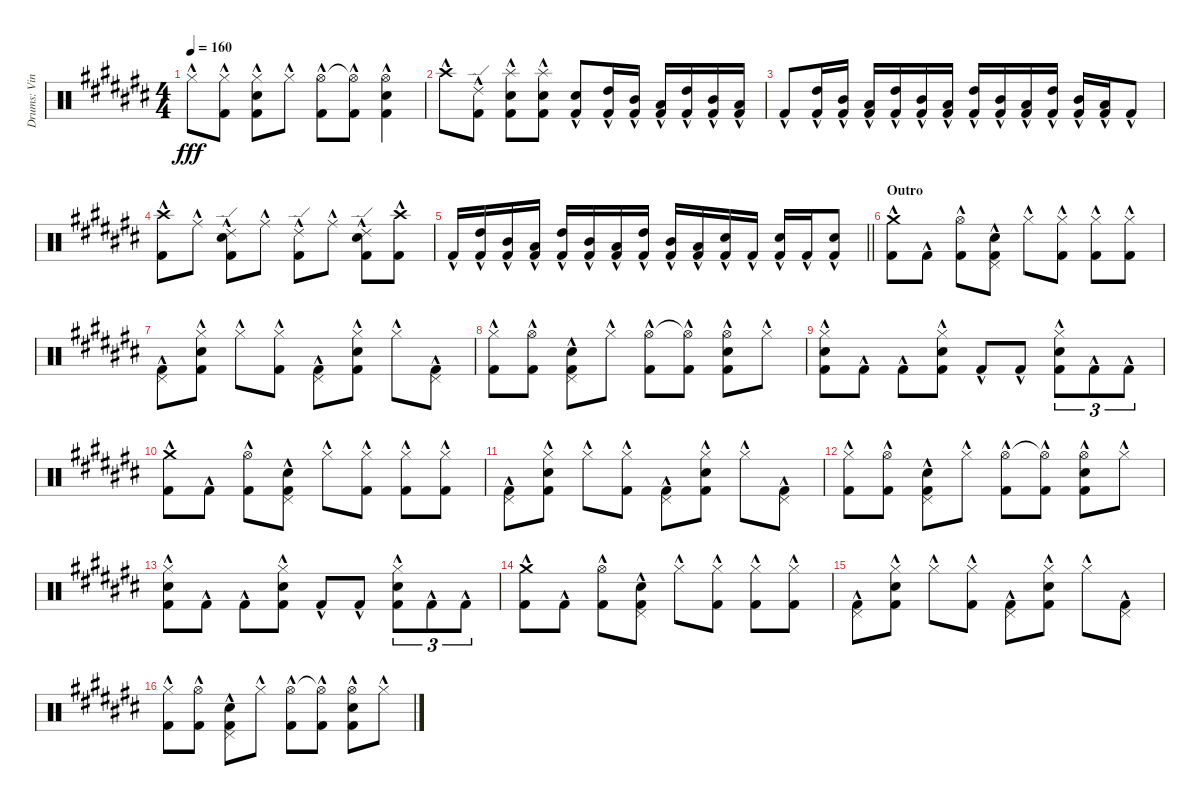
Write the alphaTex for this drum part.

\track ("Drums: Vinny" "Drums: Vin") {instrument percussion}
\staff {score}
\articulation defaults
\ts (4 4)
\tempo 160
\clef neutral
\ks c# "Hi-Hat (closed)"{hac}.8{dy fff}
("Hi-Hat (closed)"{hac} "Kick (hit) 2"{hac}).8 ("Hi-Hat (closed)"{hac} "Snare (hit) 2"{hac} "Kick (hit) 2"{hac}).8 "Hi-Hat (closed)"{hac}.8 ("Hi-Hat (open)"{hac} "Kick (hit) 2"{hac}).8 ("Hi-Hat (open)"{t} "Kick (hit) 2"{hac}).8 ("Hi-Hat (open)"{hac} "Snare (hit) 2"{hac} "Kick (hit) 2"{hac}).4 |
"Crash high (hit)"{hac}.8 ("Ride (edge) 2"{hac} "Kick (hit) 2"{hac}).8 ("Splash (hit)"{hac} "Snare (hit) 2"{hac} "Kick (hit) 2"{hac}).8 ("Splash (hit)"{hac} "Snare (hit) 2"{hac} "Kick (hit) 2"{hac}).8 ("Snare (hit) 2"{hac} "Kick (hit) 2"{hac}).8 ("High Tom (hit)" "Kick (hit) 2"{hac}).16 ("Mid Tom (hit)" "Kick (hit) 2"{hac}).16 ("Low Tom (hit)" "Kick (hit) 2"{hac}).16 ("High Tom (hit)" "Kick (hit) 2"{hac}).16 ("Mid Tom (hit)" "Kick (hit) 2"{hac}).16 ("Low Tom (hit)" "Kick (hit) 2"{hac}).16 |
"Kick (hit) 2"{hac}.8 ("High Tom (hit)" "Kick (hit) 2"{hac}).16 ("Mid Tom (hit)" "Kick (hit) 2"{hac}).16 ("Low Tom (hit)" "Kick (hit) 2"{hac}).16 ("High Tom (hit)" "Kick (hit) 2"{hac}).16 ("Mid Tom (hit)" "Kick (hit) 2"{hac}).16 ("Low Tom (hit)" "Kick (hit) 2"{hac}).16 ("High Tom (hit)" "Kick (hit) 2"{hac}).16 ("Mid Tom (hit)" "Kick (hit) 2"{hac}).16 ("Low Tom (hit)" "Kick (hit) 2"{hac}).16 ("High Tom (hit)" "Kick (hit) 2"{hac}).16 ("Mid Tom (hit)" "Kick (hit) 2"{hac}).16 ("Low Tom (hit)" "Kick (hit) 2"{hac}).16 "Kick (hit) 2"{hac}.8 |
("Crash high (hit)"{hac} "Kick (hit) 2"{hac}).8 "Ride (middle)"{hac}.8 ("Ride (edge) 2"{hac} "Snare (hit) 2"{hac} "Kick (hit) 2"{hac}).8 "Ride (middle)"{hac}.8 ("Ride (edge) 2"{hac} "Kick (hit) 2"{hac}).8 "Ride (middle)"{hac}.8 ("Ride (edge) 2"{hac} "Snare (hit) 2"{hac} "Kick (hit) 2"{hac}).8 ("Crash high (hit)"{hac} "Kick (hit) 2"{hac}).8 |
\barLineRight lightlight "Kick (hit) 2"{hac}.16
("High Tom (hit)" "Kick (hit) 2"{hac}).16 ("Mid Tom (hit)" "Kick (hit) 2"{hac}).16 ("Low Tom (hit)" "Kick (hit) 2"{hac}).16 ("High Tom (hit)" "Kick (hit) 2"{hac}).16 ("Mid Tom (hit)" "Kick (hit) 2"{hac}).16 ("Low Tom (hit)" "Kick (hit) 2"{hac}).16 ("High Tom (hit)" "Kick (hit) 2"{hac}).16 ("Mid Tom (hit)" "Kick (hit) 2"{hac}).16 ("Low Tom (hit)" "Kick (hit) 2"{hac}).16 ("Electric Snare (hit)" "Kick (hit) 2"{hac}).16 "Kick (hit) 2"{hac}.16 ("Electric Snare (hit)" "Kick (hit) 2"{hac}).16 "Kick (hit) 2"{hac}.16 ("Electric Snare (hit)" "Kick (hit) 2"{hac}).8 |
\section ("" "Outro")
("Crash medium (hit)"{hac} "Kick (hit) 2"{hac}).8 "Kick (hit) 2"{hac}.8 ("Hi-Hat (open)"{hac} "Kick (hit) 2"{hac}).8 ("Pedal Hi-Hat (hit)"{hac} "Snare (hit) 2"{hac} "Kick (hit) 2"{hac}).8 "Hi-Hat (closed)"{hac}.8 ("Hi-Hat (closed)"{hac} "Kick (hit) 2"{hac}).8 ("Hi-Hat (closed)"{hac} "Kick (hit) 2"{hac}).8 ("Hi-Hat (closed)"{hac} "Kick (hit) 2"{hac}).8 |
("Pedal Hi-Hat (hit)"{hac} "Kick (hit) 2"{hac}).8 ("Hi-Hat (closed)"{hac} "Snare (hit) 2"{hac} "Kick (hit) 2"{hac}).8 "Hi-Hat (closed)"{hac}.8 ("Hi-Hat (closed)"{hac} "Kick (hit) 2"{hac}).8 ("Pedal Hi-Hat (hit)"{hac} "Kick (hit) 2"{hac}).8 ("Hi-Hat (closed)"{hac} "Snare (hit) 2"{hac} "Kick (hit) 2"{hac}).8 "Hi-Hat (closed)"{hac}.8 ("Pedal Hi-Hat (hit)"{hac} "Kick (hit) 2"{hac}).8 |
("Hi-Hat (closed)"{hac} "Kick (hit) 2"{hac}).8 ("Hi-Hat (open)"{hac} "Kick (hit) 2"{hac}).8 ("Pedal Hi-Hat (hit)"{hac} "Snare (hit) 2"{hac} "Kick (hit) 2"{hac}).8 "Hi-Hat (closed)"{hac}.8 ("Hi-Hat (open)"{hac} "Kick (hit) 2"{hac}).8 ("Hi-Hat (open)"{t} "Kick (hit) 2"{hac}).8 ("Hi-Hat (open)"{hac} "Snare (hit) 2"{hac} "Kick (hit) 2"{hac}).8 "Hi-Hat (closed)"{hac}.8 |
("Hi-Hat (closed)"{hac} "Snare (hit) 2"{hac} "Kick (hit) 2"{hac}).8 "Kick (hit) 2"{hac}.8 "Kick (hit) 2"{hac}.8 ("Hi-Hat (closed)"{hac} "Snare (hit) 2"{hac} "Kick (hit) 2"{hac}).8 "Kick (hit) 2"{hac}.8 "Kick (hit) 2"{hac}.8 ("Hi-Hat (closed)"{hac} "Snare (hit) 2"{hac} "Kick (hit) 2"{hac}).8{tu (3 2)} "Kick (hit) 2"{hac}.8{tu (3 2)} "Kick (hit) 2"{hac}.8{tu (3 2)} |
("Crash medium (hit)"{hac} "Kick (hit) 2"{hac}).8 "Kick (hit) 2"{hac}.8 ("Hi-Hat (open)"{hac} "Kick (hit) 2"{hac}).8 ("Pedal Hi-Hat (hit)"{hac} "Snare (hit) 2"{hac} "Kick (hit) 2"{hac}).8 "Hi-Hat (closed)"{hac}.8 ("Hi-Hat (closed)"{hac} "Kick (hit) 2"{hac}).8 ("Hi-Hat (closed)"{hac} "Kick (hit) 2"{hac}).8 ("Hi-Hat (closed)"{hac} "Kick (hit) 2"{hac}).8 |
("Pedal Hi-Hat (hit)"{hac} "Kick (hit) 2"{hac}).8 ("Hi-Hat (closed)"{hac} "Snare (hit) 2"{hac} "Kick (hit) 2"{hac}).8 "Hi-Hat (closed)"{hac}.8 ("Hi-Hat (closed)"{hac} "Kick (hit) 2"{hac}).8 ("Pedal Hi-Hat (hit)"{hac} "Kick (hit) 2"{hac}).8 ("Hi-Hat (closed)"{hac} "Snare (hit) 2"{hac} "Kick (hit) 2"{hac}).8 "Hi-Hat (closed)"{hac}.8 ("Pedal Hi-Hat (hit)"{hac} "Kick (hit) 2"{hac}).8 |
("Hi-Hat (closed)"{hac} "Kick (hit) 2"{hac}).8 ("Hi-Hat (open)"{hac} "Kick (hit) 2"{hac}).8 ("Pedal Hi-Hat (hit)"{hac} "Snare (hit) 2"{hac} "Kick (hit) 2"{hac}).8 "Hi-Hat (closed)"{hac}.8 ("Hi-Hat (open)"{hac} "Kick (hit) 2"{hac}).8 ("Hi-Hat (open)"{t} "Kick (hit) 2"{hac}).8 ("Hi-Hat (open)"{hac} "Snare (hit) 2"{hac} "Kick (hit) 2"{hac}).8 "Hi-Hat (closed)"{hac}.8 |
("Hi-Hat (closed)"{hac} "Snare (hit) 2"{hac} "Kick (hit) 2"{hac}).8 "Kick (hit) 2"{hac}.8 "Kick (hit) 2"{hac}.8 ("Hi-Hat (closed)"{hac} "Snare (hit) 2"{hac} "Kick (hit) 2"{hac}).8 "Kick (hit) 2"{hac}.8 "Kick (hit) 2"{hac}.8 ("Hi-Hat (closed)"{hac} "Snare (hit) 2"{hac} "Kick (hit) 2"{hac}).8{tu (3 2)} "Kick (hit) 2"{hac}.8{tu (3 2)} "Kick (hit) 2"{hac}.8{tu (3 2)} |
("Crash medium (hit)"{hac} "Kick (hit) 2"{hac}).8 "Kick (hit) 2"{hac}.8 ("Hi-Hat (open)"{hac} "Kick (hit) 2"{hac}).8 ("Pedal Hi-Hat (hit)"{hac} "Snare (hit) 2"{hac} "Kick (hit) 2"{hac}).8 "Hi-Hat (closed)"{hac}.8 ("Hi-Hat (closed)"{hac} "Kick (hit) 2"{hac}).8 ("Hi-Hat (closed)"{hac} "Kick (hit) 2"{hac}).8 ("Hi-Hat (closed)"{hac} "Kick (hit) 2"{hac}).8 |
("Pedal Hi-Hat (hit)"{hac} "Kick (hit) 2"{hac}).8 ("Hi-Hat (closed)"{hac} "Snare (hit) 2"{hac} "Kick (hit) 2"{hac}).8 "Hi-Hat (closed)"{hac}.8 ("Hi-Hat (closed)"{hac} "Kick (hit) 2"{hac}).8 ("Pedal Hi-Hat (hit)"{hac} "Kick (hit) 2"{hac}).8 ("Hi-Hat (closed)"{hac} "Snare (hit) 2"{hac} "Kick (hit) 2"{hac}).8 "Hi-Hat (closed)"{hac}.8 ("Pedal Hi-Hat (hit)"{hac} "Kick (hit) 2"{hac}).8 |
("Hi-Hat (closed)"{hac} "Kick (hit) 2"{hac}).8 ("Hi-Hat (open)"{hac} "Kick (hit) 2"{hac}).8 ("Pedal Hi-Hat (hit)"{hac} "Snare (hit) 2"{hac} "Kick (hit) 2"{hac}).8 "Hi-Hat (closed)"{hac}.8 ("Hi-Hat (open)"{hac} "Kick (hit) 2"{hac}).8 ("Hi-Hat (open)"{t} "Kick (hit) 2"{hac}).8 ("Hi-Hat (open)"{hac} "Snare (hit) 2"{hac} "Kick (hit) 2"{hac}).8 "Hi-Hat (closed)"{hac}.8
